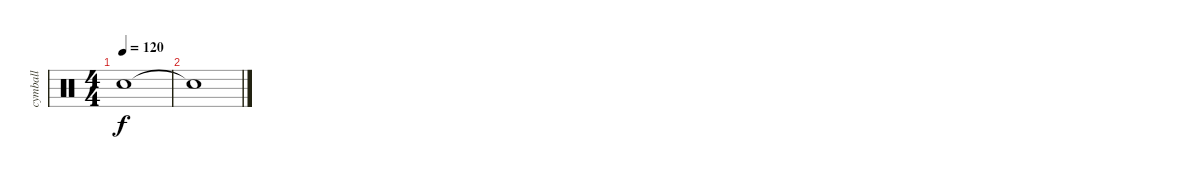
\track ("cymball" "cymball") {instrument percussion}
\staff {score}
\articulation defaults
\ts (4 4)
\tempo 120
\clef neutral
\ks c "Snare (hit)"{t}.1{dy f}
|
"Snare (hit)"{t}.1
